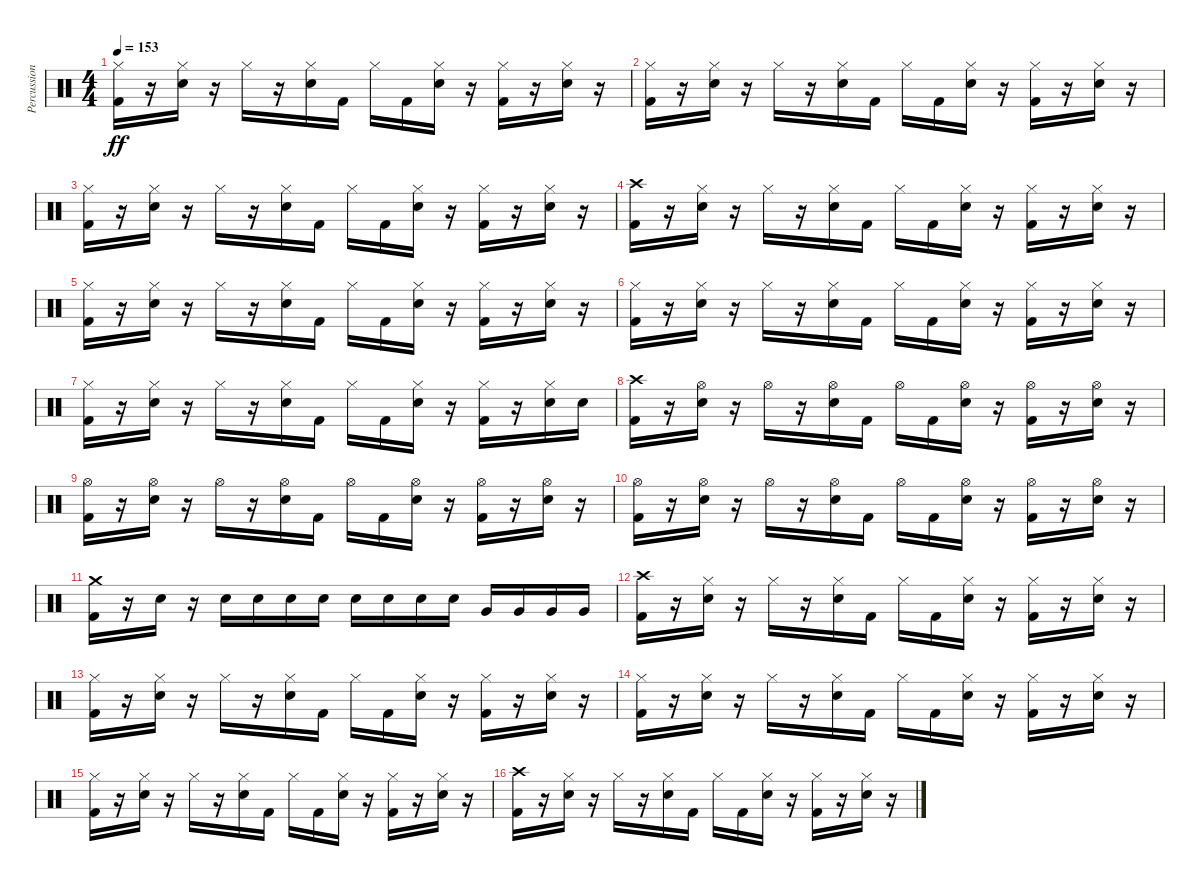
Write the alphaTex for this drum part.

\track ("Percussion" "Percussion") {instrument percussion}
\staff {score}
\articulation defaults
\ts (4 4)
\tempo 153
\clef neutral
\ks c
("Hi-Hat (closed)" "Kick (hit) 2").16{dy ff} r.16 ("Hi-Hat (closed)" "Snare (hit) 2").16 r.16 "Hi-Hat (closed)".16 r.16 ("Snare (hit) 2" "Hi-Hat (closed)").16 "Kick (hit) 2".16 "Hi-Hat (closed)".16 "Kick (hit) 2".16 ("Hi-Hat (closed)" "Snare (hit) 2").16 r.16 ("Hi-Hat (closed)" "Kick (hit) 2").16 r.16 ("Hi-Hat (closed)" "Snare (hit) 2").16 r.16 |
("Hi-Hat (closed)" "Kick (hit) 2").16 r.16 ("Snare (hit) 2" "Hi-Hat (closed)").16 r.16 "Hi-Hat (closed)".16 r.16 ("Snare (hit) 2" "Hi-Hat (closed)").16 "Kick (hit) 2".16 "Hi-Hat (closed)".16 "Kick (hit) 2".16 ("Snare (hit) 2" "Hi-Hat (closed)").16 r.16 ("Kick (hit) 2" "Hi-Hat (closed)").16 r.16 ("Snare (hit) 2" "Hi-Hat (closed)").16 r.16 |
("Kick (hit) 2" "Hi-Hat (closed)").16 r.16 ("Snare (hit) 2" "Hi-Hat (closed)").16 r.16 "Hi-Hat (closed)".16 r.16 ("Snare (hit) 2" "Hi-Hat (closed)").16 "Kick (hit) 2".16 "Hi-Hat (closed)".16 "Kick (hit) 2".16 ("Snare (hit) 2" "Hi-Hat (closed)").16 r.16 ("Kick (hit) 2" "Hi-Hat (closed)").16 r.16 ("Snare (hit) 2" "Hi-Hat (closed)").16 r.16 |
("Kick (hit) 2" "Crash high (hit)").16 r.16 ("Snare (hit) 2" "Hi-Hat (closed)").16 r.16 "Hi-Hat (closed)".16 r.16 ("Snare (hit) 2" "Hi-Hat (closed)").16 "Kick (hit) 2".16 "Hi-Hat (closed)".16 "Kick (hit) 2".16 ("Snare (hit) 2" "Hi-Hat (closed)").16 r.16 ("Kick (hit) 2" "Hi-Hat (closed)").16 r.16 ("Snare (hit) 2" "Hi-Hat (closed)").16 r.16 |
("Kick (hit) 2" "Hi-Hat (closed)").16 r.16 ("Snare (hit) 2" "Hi-Hat (closed)").16 r.16 "Hi-Hat (closed)".16 r.16 ("Snare (hit) 2" "Hi-Hat (closed)").16 "Kick (hit) 2".16 "Hi-Hat (closed)".16 "Kick (hit) 2".16 ("Snare (hit) 2" "Hi-Hat (closed)").16 r.16 ("Kick (hit) 2" "Hi-Hat (closed)").16 r.16 ("Snare (hit) 2" "Hi-Hat (closed)").16 r.16 |
("Kick (hit) 2" "Hi-Hat (closed)").16 r.16 ("Hi-Hat (closed)" "Snare (hit) 2").16 r.16 "Hi-Hat (closed)".16 r.16 ("Snare (hit) 2" "Hi-Hat (closed)").16 "Kick (hit) 2".16 "Hi-Hat (closed)".16 "Kick (hit) 2".16 ("Hi-Hat (closed)" "Snare (hit) 2").16 r.16 ("Hi-Hat (closed)" "Kick (hit) 2").16 r.16 ("Hi-Hat (closed)" "Snare (hit) 2").16 r.16 |
("Hi-Hat (closed)" "Kick (hit) 2").16 r.16 ("Hi-Hat (closed)" "Snare (hit) 2").16 r.16 "Hi-Hat (closed)".16 r.16 ("Snare (hit) 2" "Hi-Hat (closed)").16 "Kick (hit) 2".16 "Hi-Hat (closed)".16 "Kick (hit) 2".16 ("Hi-Hat (closed)" "Snare (hit) 2").16 r.16 ("Hi-Hat (closed)" "Kick (hit) 2").16 r.16 ("Snare (hit) 2" "Hi-Hat (closed)").16 "Snare (hit) 2".16 |
("Kick (hit) 2" "Crash high (hit)").16 r.16 ("Snare (hit) 2" "Hi-Hat (open)").16 r.16 "Hi-Hat (open)".16 r.16 ("Snare (hit) 2" "Hi-Hat (open)").16 "Kick (hit) 2".16 "Hi-Hat (open)".16 "Kick (hit) 2".16 ("Snare (hit) 2" "Hi-Hat (open)").16 r.16 ("Kick (hit) 2" "Hi-Hat (open)").16 r.16 ("Snare (hit) 2" "Hi-Hat (open)").16 r.16 |
("Kick (hit) 2" "Hi-Hat (open)").16 r.16 ("Snare (hit) 2" "Hi-Hat (open)").16 r.16 "Hi-Hat (open)".16 r.16 ("Snare (hit) 2" "Hi-Hat (open)").16 "Kick (hit) 2".16 "Hi-Hat (open)".16 "Kick (hit) 2".16 ("Snare (hit) 2" "Hi-Hat (open)").16 r.16 ("Kick (hit) 2" "Hi-Hat (open)").16 r.16 ("Snare (hit) 2" "Hi-Hat (open)").16 r.16 |
("Hi-Hat (open)" "Kick (hit) 2").16 r.16 ("Hi-Hat (open)" "Snare (hit) 2").16 r.16 "Hi-Hat (open)".16 r.16 ("Snare (hit) 2" "Hi-Hat (open)").16 "Kick (hit) 2".16 "Hi-Hat (open)".16 "Kick (hit) 2".16 ("Hi-Hat (open)" "Snare (hit) 2").16 r.16 ("Hi-Hat (open)" "Kick (hit) 2").16 r.16 ("Hi-Hat (open)" "Snare (hit) 2").16 r.16 |
("Kick (hit) 2" "Crash medium (hit)").16 r.16 "Snare (hit) 2".16 r.16 "Snare (hit) 2".16 "Snare (hit) 2".16 "Snare (hit) 2".16 "Snare (hit) 2".16 "Snare (hit) 2".16 "Snare (hit) 2".16 "Snare (hit) 2".16 "Snare (hit) 2".16 "Very Low Tom (hit)".16 "Very Low Tom (hit)".16 "Very Low Tom (hit)".16 "Very Low Tom (hit)".16 |
("Kick (hit) 2" "Crash high (hit)").16 r.16 ("Snare (hit) 2" "Hi-Hat (closed)").16 r.16 "Hi-Hat (closed)".16 r.16 ("Hi-Hat (closed)" "Snare (hit) 2").16 "Kick (hit) 2".16 "Hi-Hat (closed)".16 "Kick (hit) 2".16 ("Snare (hit) 2" "Hi-Hat (closed)").16 r.16 ("Kick (hit) 2" "Hi-Hat (closed)").16 r.16 ("Snare (hit) 2" "Hi-Hat (closed)").16 r.16 |
("Kick (hit) 2" "Hi-Hat (closed)").16 r.16 ("Snare (hit) 2" "Hi-Hat (closed)").16 r.16 "Hi-Hat (closed)".16 r.16 ("Hi-Hat (closed)" "Snare (hit) 2").16 "Kick (hit) 2".16 "Hi-Hat (closed)".16 "Kick (hit) 2".16 ("Snare (hit) 2" "Hi-Hat (closed)").16 r.16 ("Kick (hit) 2" "Hi-Hat (closed)").16 r.16 ("Snare (hit) 2" "Hi-Hat (closed)").16 r.16 |
("Kick (hit) 2" "Hi-Hat (closed)").16 r.16 ("Hi-Hat (closed)" "Snare (hit) 2").16 r.16 "Hi-Hat (closed)".16 r.16 ("Hi-Hat (closed)" "Snare (hit) 2").16 "Kick (hit) 2".16 "Hi-Hat (closed)".16 "Kick (hit) 2".16 ("Hi-Hat (closed)" "Snare (hit) 2").16 r.16 ("Hi-Hat (closed)" "Kick (hit) 2").16 r.16 ("Hi-Hat (closed)" "Snare (hit) 2").16 r.16 |
("Hi-Hat (closed)" "Kick (hit) 2").16 r.16 ("Hi-Hat (closed)" "Snare (hit) 2").16 r.16 "Hi-Hat (closed)".16 r.16 ("Hi-Hat (closed)" "Snare (hit) 2").16 "Kick (hit) 2".16 "Hi-Hat (closed)".16 "Kick (hit) 2".16 ("Hi-Hat (closed)" "Snare (hit) 2").16 r.16 ("Hi-Hat (closed)" "Kick (hit) 2").16 r.16 ("Hi-Hat (closed)" "Snare (hit) 2").16 r.16 |
("Crash high (hit)" "Kick (hit) 2").16 r.16 ("Hi-Hat (closed)" "Snare (hit) 2").16 r.16 "Hi-Hat (closed)".16 r.16 ("Hi-Hat (closed)" "Snare (hit) 2").16 "Kick (hit) 2".16 "Hi-Hat (closed)".16 "Kick (hit) 2".16 ("Hi-Hat (closed)" "Snare (hit) 2").16 r.16 ("Hi-Hat (closed)" "Kick (hit) 2").16 r.16 ("Hi-Hat (closed)" "Snare (hit) 2").16 r.16
